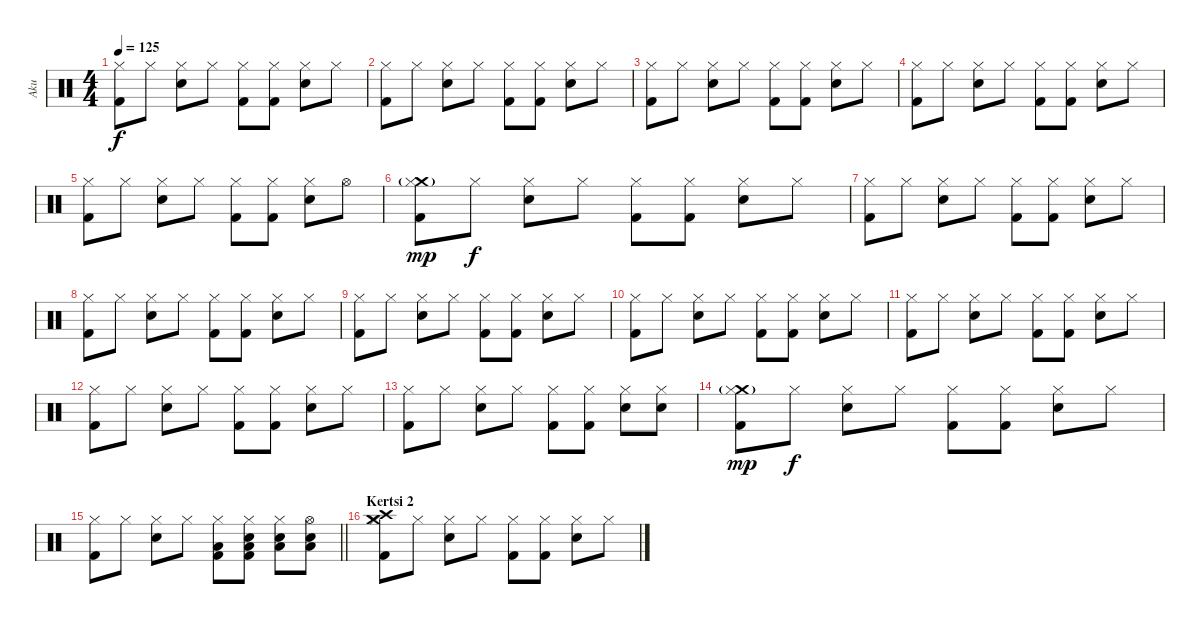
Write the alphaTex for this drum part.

\track ("Aku" "Aku") {instrument percussion}
\staff {score}
\articulation defaults
\ts (4 4)
\tempo 125
\clef neutral
\ks c
("Hi-Hat (closed)" "Kick (hit) 2").8{dy f} "Hi-Hat (closed)".8 ("Hi-Hat (closed)" "Snare (hit) 2").8 "Hi-Hat (closed)".8 ("Hi-Hat (closed)" "Kick (hit) 2").8 ("Hi-Hat (closed)" "Kick (hit) 2").8 ("Hi-Hat (closed)" "Snare (hit) 2").8 "Hi-Hat (closed)".8 |
("Hi-Hat (closed)" "Kick (hit) 2").8 "Hi-Hat (closed)".8 ("Hi-Hat (closed)" "Snare (hit) 2").8 "Hi-Hat (closed)".8 ("Hi-Hat (closed)" "Kick (hit) 2").8 ("Hi-Hat (closed)" "Kick (hit) 2").8 ("Hi-Hat (closed)" "Snare (hit) 2").8 "Hi-Hat (closed)".8 |
("Hi-Hat (closed)" "Kick (hit) 2").8 "Hi-Hat (closed)".8 ("Hi-Hat (closed)" "Snare (hit) 2").8 "Hi-Hat (closed)".8 ("Hi-Hat (closed)" "Kick (hit) 2").8 ("Hi-Hat (closed)" "Kick (hit) 2").8 ("Hi-Hat (closed)" "Snare (hit) 2").8 "Hi-Hat (closed)".8 |
("Hi-Hat (closed)" "Kick (hit) 2").8 "Hi-Hat (closed)".8 ("Hi-Hat (closed)" "Snare (hit) 2").8 "Hi-Hat (closed)".8 ("Hi-Hat (closed)" "Kick (hit) 2").8 ("Hi-Hat (closed)" "Kick (hit) 2").8 ("Hi-Hat (closed)" "Snare (hit) 2").8 "Hi-Hat (closed)".8 |
("Hi-Hat (closed)" "Kick (hit) 2").8 "Hi-Hat (closed)".8 ("Hi-Hat (closed)" "Snare (hit) 2").8 "Hi-Hat (closed)".8 ("Hi-Hat (closed)" "Kick (hit) 2").8 ("Hi-Hat (closed)" "Kick (hit) 2").8 ("Hi-Hat (closed)" "Snare (hit) 2").8 "Hi-Hat (open)".8 |
("Crash medium (hit)"{g} "Hi-Hat (closed)" "Kick (hit) 2").8{dy mp} "Hi-Hat (closed)".8{dy f} ("Hi-Hat (closed)" "Snare (hit) 2").8 "Hi-Hat (closed)".8 ("Hi-Hat (closed)" "Kick (hit) 2").8 ("Hi-Hat (closed)" "Kick (hit) 2").8 ("Hi-Hat (closed)" "Snare (hit) 2").8 "Hi-Hat (closed)".8 |
("Hi-Hat (closed)" "Kick (hit) 2").8 "Hi-Hat (closed)".8 ("Hi-Hat (closed)" "Snare (hit) 2").8 "Hi-Hat (closed)".8 ("Hi-Hat (closed)" "Kick (hit) 2").8 ("Hi-Hat (closed)" "Kick (hit) 2").8 ("Hi-Hat (closed)" "Snare (hit) 2").8 "Hi-Hat (closed)".8 |
("Hi-Hat (closed)" "Kick (hit) 2").8 "Hi-Hat (closed)".8 ("Hi-Hat (closed)" "Snare (hit) 2").8 "Hi-Hat (closed)".8 ("Hi-Hat (closed)" "Kick (hit) 2").8 ("Hi-Hat (closed)" "Kick (hit) 2").8 ("Hi-Hat (closed)" "Snare (hit) 2").8 "Hi-Hat (closed)".8 |
("Hi-Hat (closed)" "Kick (hit) 2").8 "Hi-Hat (closed)".8 ("Hi-Hat (closed)" "Snare (hit) 2").8 "Hi-Hat (closed)".8 ("Hi-Hat (closed)" "Kick (hit) 2").8 ("Hi-Hat (closed)" "Kick (hit) 2").8 ("Hi-Hat (closed)" "Snare (hit) 2").8 "Hi-Hat (closed)".8 |
("Hi-Hat (closed)" "Kick (hit) 2").8 "Hi-Hat (closed)".8 ("Hi-Hat (closed)" "Snare (hit) 2").8 "Hi-Hat (closed)".8 ("Hi-Hat (closed)" "Kick (hit) 2").8 ("Hi-Hat (closed)" "Kick (hit) 2").8 ("Hi-Hat (closed)" "Snare (hit) 2").8 "Hi-Hat (closed)".8 |
("Hi-Hat (closed)" "Kick (hit) 2").8 "Hi-Hat (closed)".8 ("Hi-Hat (closed)" "Snare (hit) 2").8 "Hi-Hat (closed)".8 ("Hi-Hat (closed)" "Kick (hit) 2").8 ("Hi-Hat (closed)" "Kick (hit) 2").8 ("Hi-Hat (closed)" "Snare (hit) 2").8 "Hi-Hat (closed)".8 |
("Hi-Hat (closed)" "Kick (hit) 2").8 "Hi-Hat (closed)".8 ("Hi-Hat (closed)" "Snare (hit) 2").8 "Hi-Hat (closed)".8 ("Hi-Hat (closed)" "Kick (hit) 2").8 ("Hi-Hat (closed)" "Kick (hit) 2").8 ("Hi-Hat (closed)" "Snare (hit) 2").8 "Hi-Hat (closed)".8 |
("Hi-Hat (closed)" "Kick (hit) 2").8 "Hi-Hat (closed)".8 ("Hi-Hat (closed)" "Snare (hit) 2").8 "Hi-Hat (closed)".8 ("Hi-Hat (closed)" "Kick (hit) 2").8 ("Hi-Hat (closed)" "Kick (hit) 2").8 ("Hi-Hat (closed)" "Snare (hit) 2").8 ("Hi-Hat (closed)" "Snare (hit) 2").8 |
("Crash medium (hit)"{g} "Hi-Hat (closed)" "Kick (hit) 2").8{dy mp} "Hi-Hat (closed)".8{dy f} ("Hi-Hat (closed)" "Snare (hit) 2").8 "Hi-Hat (closed)".8 ("Hi-Hat (closed)" "Kick (hit) 2").8 ("Hi-Hat (closed)" "Kick (hit) 2").8 ("Hi-Hat (closed)" "Snare (hit) 2").8 "Hi-Hat (closed)".8 |
\barLineRight lightlight
("Hi-Hat (closed)" "Kick (hit) 2").8 "Hi-Hat (closed)".8 ("Hi-Hat (closed)" "Snare (hit) 2").8 "Hi-Hat (closed)".8 ("Low Tom (hit)" "Hi-Hat (closed)" "Kick (hit) 2").8 ("Low Tom (hit)" "Hi-Hat (closed)" "Kick (hit) 2" "Snare (hit) 2").8 ("Low Tom (hit)" "Hi-Hat (closed)" "Snare (hit) 2").8 ("Low Tom (hit)" "Hi-Hat (open)" "Snare (hit) 2").8 |
\section ("" "Kertsi 2")
("Crash high (hit)" "Crash medium (hit)" "Hi-Hat (closed)" "Kick (hit) 2").8 "Hi-Hat (closed)".8 ("Hi-Hat (closed)" "Snare (hit) 2").8 "Hi-Hat (closed)".8 ("Hi-Hat (closed)" "Kick (hit) 2").8 ("Hi-Hat (closed)" "Kick (hit) 2").8 ("Hi-Hat (closed)" "Snare (hit) 2").8 "Hi-Hat (closed)".8
